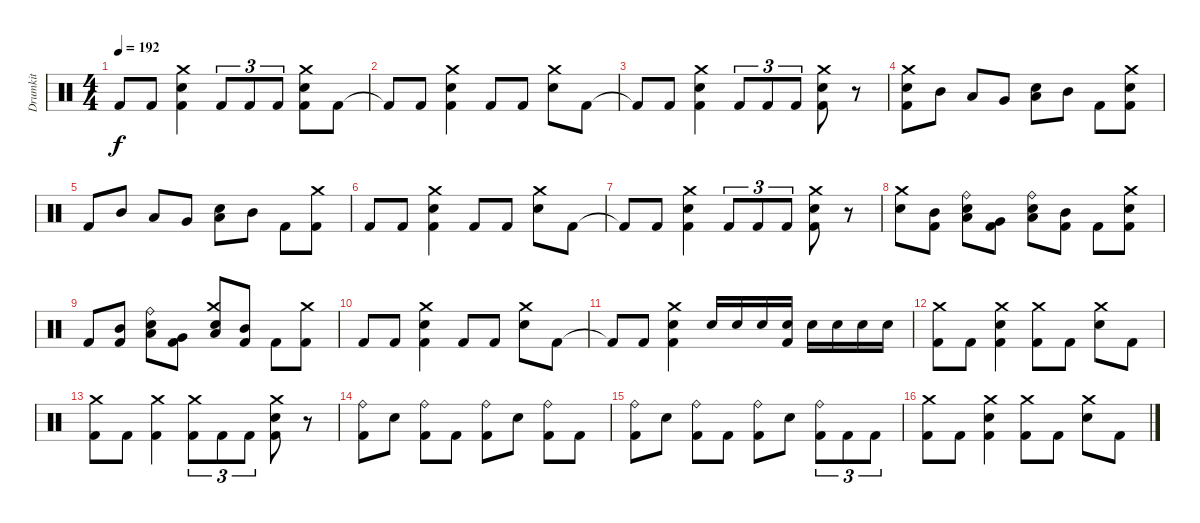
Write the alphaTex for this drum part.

\track ("Drumkit" "Drumkit") {instrument percussion}
\staff {score}
\articulation defaults
\ts (4 4)
\tempo 192
\clef neutral
\ks c "Kick (hit) 2"{t}.8{dy f} "Kick (hit) 2".8
("Kick (hit) 2" "Snare (hit) 2" "Crash medium (hit)").4 "Kick (hit) 2".8{tu (3 2)} "Kick (hit) 2".8{tu (3 2)} "Kick (hit) 2".8{tu (3 2)} ("Kick (hit) 2" "Snare (hit) 2" "Crash medium (hit)").8 "Kick (hit) 2".8 |
"Kick (hit) 2"{t}.8 "Kick (hit) 2".8 ("Kick (hit) 2" "Snare (hit) 2" "Crash medium (hit)").4 "Kick (hit) 2".8 "Kick (hit) 2".8 ("Snare (hit) 2" "Crash medium (hit)").8 "Kick (hit) 2".8 |
"Kick (hit) 2"{t}.8 "Kick (hit) 2".8 ("Kick (hit) 2" "Snare (hit) 2" "Crash medium (hit)").4 "Kick (hit) 2".8{tu (3 2)} "Kick (hit) 2".8{tu (3 2)} "Kick (hit) 2".8{tu (3 2)} ("Kick (hit) 2" "Snare (hit) 2" "Crash medium (hit)").8 r.8 |
("Snare (hit) 2" "Crash medium (hit)" "Kick (hit) 2").8 "Mid Tom (hit)".8 "Low Tom (hit)".8 "Very Low Tom (hit)".8 ("Low Tom (hit)" "Snare (hit) 2").8 "Mid Tom (hit)".8 "Kick (hit) 2".8 ("Kick (hit) 2" "Snare (hit) 2" "Crash medium (hit)").8 |
"Kick (hit) 2".8 "Mid Tom (hit)".8 "Low Tom (hit)".8 "Very Low Tom (hit)".8 ("Low Tom (hit)" "Snare (hit) 2").8 "Mid Tom (hit)".8 "Kick (hit) 2".8 ("Kick (hit) 2" "Crash medium (hit)").8 |
"Kick (hit) 2".8 "Kick (hit) 2".8 ("Kick (hit) 2" "Snare (hit) 2" "Crash medium (hit)").4 "Kick (hit) 2".8 "Kick (hit) 2".8 ("Snare (hit) 2" "Crash medium (hit)").8 "Kick (hit) 2".8 |
"Kick (hit) 2"{t}.8 "Kick (hit) 2".8 ("Kick (hit) 2" "Snare (hit) 2" "Crash medium (hit)").4 "Kick (hit) 2".8{tu (3 2)} "Kick (hit) 2".8{tu (3 2)} "Kick (hit) 2".8{tu (3 2)} ("Kick (hit) 2" "Snare (hit) 2" "Crash medium (hit)").8 r.8 |
("Crash medium (hit)" "Snare (hit) 2").8 ("Mid Tom (hit)" "Kick (hit) 2").8 ("Low Tom (hit)" "Snare (hit) 2" "Ride (bell)").8 ("Kick (hit) 2" "Very Low Tom (hit)").8 ("Low Tom (hit)" "Snare (hit) 2" "Ride (bell)").8 ("Kick (hit) 2" "Mid Tom (hit)").8 "Kick (hit) 2".8 ("Kick (hit) 2" "Snare (hit) 2" "Crash medium (hit)").8 |
"Kick (hit) 2".8 ("Kick (hit) 2" "Mid Tom (hit)").8 ("Ride (bell)" "Snare (hit) 2" "Low Tom (hit)").8 ("Very Low Tom (hit)" "Kick (hit) 2").8 ("Low Tom (hit)" "Snare (hit) 2" "Crash medium (hit)").8 ("Mid Tom (hit)" "Kick (hit) 2").8 "Kick (hit) 2".8 ("Kick (hit) 2" "Crash medium (hit)").8 |
"Kick (hit) 2".8 "Kick (hit) 2".8 ("Kick (hit) 2" "Snare (hit) 2" "Crash medium (hit)").4 "Kick (hit) 2".8 "Kick (hit) 2".8 ("Snare (hit) 2" "Crash medium (hit)").8 "Kick (hit) 2".8 |
"Kick (hit) 2"{t}.8 "Kick (hit) 2".8 ("Kick (hit) 2" "Snare (hit) 2" "Crash medium (hit)").4 "Snare (hit) 2".16 "Snare (hit) 2".16 "Snare (hit) 2".16 ("Snare (hit) 2" "Kick (hit) 2").16 "Snare (hit) 2".16 "Snare (hit) 2".16 "Snare (hit) 2".16 "Snare (hit) 2".16 |
("Kick (hit) 2" "Crash medium (hit)").8 "Kick (hit) 2".8 ("Kick (hit) 2" "Snare (hit) 2" "Crash medium (hit)").4 ("Crash medium (hit)" "Kick (hit) 2").8 "Kick (hit) 2".8 ("Snare (hit) 2" "Crash medium (hit)").8 "Kick (hit) 2".8 |
("Kick (hit) 2" "Crash medium (hit)").8 "Kick (hit) 2".8 ("Kick (hit) 2" "Crash medium (hit)").4 ("Crash medium (hit)" "Kick (hit) 2").8{tu (3 2)} "Kick (hit) 2".8{tu (3 2)} "Kick (hit) 2".8{tu (3 2)} ("Kick (hit) 2" "Snare (hit) 2" "Crash medium (hit)").8 r.8 |
("Kick (hit) 2" "Ride (bell)").8 "Snare (hit) 2".8 ("Kick (hit) 2" "Ride (bell)").8 "Kick (hit) 2".8 ("Kick (hit) 2" "Ride (bell)").8 "Snare (hit) 2".8 ("Kick (hit) 2" "Ride (bell)").8 "Kick (hit) 2".8 |
("Kick (hit) 2" "Ride (bell)").8 "Snare (hit) 2".8 ("Kick (hit) 2" "Ride (bell)").8 "Kick (hit) 2".8 ("Kick (hit) 2" "Ride (bell)").8 "Snare (hit) 2".8 ("Kick (hit) 2" "Ride (bell)").8{tu (3 2)} "Kick (hit) 2".8{tu (3 2)} "Kick (hit) 2".8{tu (3 2)} |
("Kick (hit) 2" "Crash medium (hit)").8 "Kick (hit) 2".8 ("Kick (hit) 2" "Snare (hit) 2" "Crash medium (hit)").4 ("Crash medium (hit)" "Kick (hit) 2").8 "Kick (hit) 2".8 ("Snare (hit) 2" "Crash medium (hit)").8 "Kick (hit) 2".8
